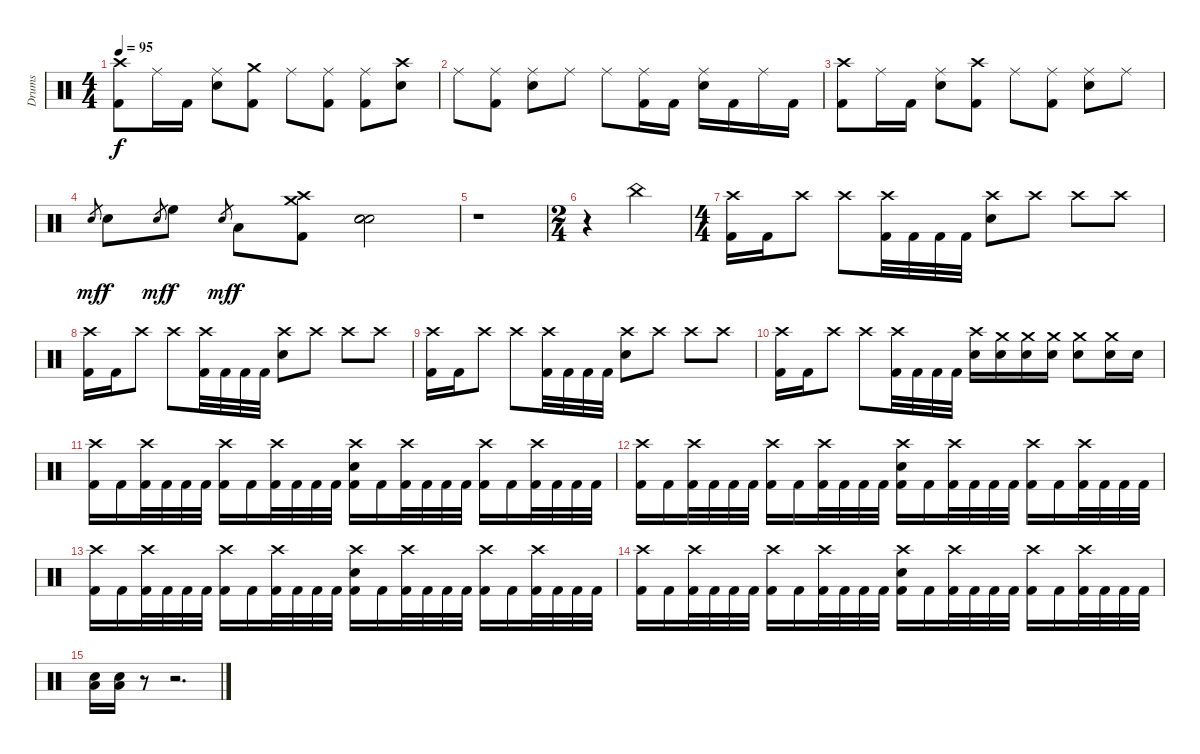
\track ("Drums" "Drums") {instrument percussion}
\staff {score}
\articulation defaults
\ts (4 4)
\tempo 95
\clef neutral
\ks c
("Crash high (hit)" "Kick (hit) 2").8{dy f} "Ride (middle)".16 "Kick (hit) 2".16 ("Ride (middle)" "Snare (hit) 2").8 ("Crash medium (hit)" "Kick (hit) 2").8 "Ride (middle)".8 ("Ride (middle)" "Kick (hit) 2").8 ("Ride (middle)" "Kick (hit) 2").8 ("Crash high (hit)" "Snare (hit) 2").8 |
"Ride (middle)".8 ("Ride (middle)" "Kick (hit) 2").8 ("Ride (middle)" "Snare (hit) 2").8 "Ride (middle)".8 "Ride (middle)".8 ("Ride (middle)" "Kick (hit) 2").16 "Kick (hit) 2".16 ("Ride (middle)" "Snare (hit) 2").16 "Kick (hit) 2".16 "Ride (middle)".16 "Kick (hit) 2".16 |
("Crash high (hit)" "Kick (hit) 2").8 "Ride (middle)".16 "Kick (hit) 2".16 ("Ride (middle)" "Snare (hit) 2").8 ("Crash high (hit)" "Kick (hit) 2").8 "Ride (middle)".8 ("Ride (middle)" "Kick (hit) 2").8 ("Ride (middle)" "Snare (hit) 2").8 "Ride (middle)".8 |
"Snare (hit)".8{gr dy mf} "Snare (hit) 2".8{dy f} "Snare (hit)".8{gr dy mf} "High Floor Tom (hit)".8{dy f} "Snare (hit)".8{gr dy mf} "Low Tom (hit)".8{dy f} ("Crash medium (hit)" "Crash high (hit)" "Kick (hit) 2").8 ("Snare (hit)" "Snare (hit)" "Snare (hit)").2 |
r.1 |
\ts (2 4)
r.4 "China (hit)".4 |
\ts (4 4)
("Crash high (hit)" "Kick (hit) 2").16 "Kick (hit) 2".16 "Crash high (hit)".8 "Crash high (hit)".8 ("Crash high (hit)" "Kick (hit) 2").32 "Kick (hit) 2".32 "Kick (hit) 2".32 "Kick (hit) 2".32 ("Crash high (hit)" "Snare (hit) 2").8 "Crash high (hit)".8 "Crash high (hit)".8 "Crash high (hit)".8 |
("Crash high (hit)" "Kick (hit) 2").16 "Kick (hit) 2".16 "Crash high (hit)".8 "Crash high (hit)".8 ("Crash high (hit)" "Kick (hit) 2").32 "Kick (hit) 2".32 "Kick (hit) 2".32 "Kick (hit) 2".32 ("Crash high (hit)" "Snare (hit) 2").8 "Crash high (hit)".8 "Crash high (hit)".8 "Crash high (hit)".8 |
("Crash high (hit)" "Kick (hit) 2").16 "Kick (hit) 2".16 "Crash high (hit)".8 "Crash high (hit)".8 ("Crash high (hit)" "Kick (hit) 2").32 "Kick (hit) 2".32 "Kick (hit) 2".32 "Kick (hit) 2".32 ("Crash high (hit)" "Snare (hit) 2").8 "Crash high (hit)".8 "Crash high (hit)".8 "Crash high (hit)".8 |
("Crash high (hit)" "Kick (hit) 2").16 "Kick (hit) 2".16 "Crash high (hit)".8 "Crash high (hit)".8 ("Crash high (hit)" "Kick (hit) 2").32 "Kick (hit) 2".32 "Kick (hit) 2".32 "Kick (hit) 2".32 ("Crash high (hit)" "Snare (hit) 2").16 ("Crash medium (hit)" "Snare (hit) 2").16 ("Crash medium (hit)" "Snare (hit) 2").16 ("Crash medium (hit)" "Snare (hit) 2").16 ("Crash medium (hit)" "Snare (hit) 2").8 ("Crash medium (hit)" "Snare (hit) 2").16 "Snare (hit) 2".16 |
("Crash high (hit)" "Kick (hit) 2").16 "Kick (hit) 2".16 ("Crash high (hit)" "Kick (hit) 2").32 "Kick (hit) 2".32 "Kick (hit) 2".32 "Kick (hit) 2".32 ("Crash high (hit)" "Kick (hit) 2").16 "Kick (hit) 2".16 ("Crash high (hit)" "Kick (hit) 2").32 "Kick (hit) 2".32 "Kick (hit) 2".32 "Kick (hit) 2".32 ("Crash high (hit)" "Snare (hit) 2" "Kick (hit) 2").16 "Kick (hit) 2".16 ("Crash high (hit)" "Kick (hit) 2").32 "Kick (hit) 2".32 "Kick (hit) 2".32 "Kick (hit) 2".32 ("Crash high (hit)" "Kick (hit) 2").16 "Kick (hit) 2".16 ("Crash high (hit)" "Kick (hit) 2").32 "Kick (hit) 2".32 "Kick (hit) 2".32 "Kick (hit) 2".32 |
("Crash high (hit)" "Kick (hit) 2").16 "Kick (hit) 2".16 ("Crash high (hit)" "Kick (hit) 2").32 "Kick (hit) 2".32 "Kick (hit) 2".32 "Kick (hit) 2".32 ("Crash high (hit)" "Kick (hit) 2").16 "Kick (hit) 2".16 ("Crash high (hit)" "Kick (hit) 2").32 "Kick (hit) 2".32 "Kick (hit) 2".32 "Kick (hit) 2".32 ("Crash high (hit)" "Snare (hit) 2" "Kick (hit) 2").16 "Kick (hit) 2".16 ("Crash high (hit)" "Kick (hit) 2").32 "Kick (hit) 2".32 "Kick (hit) 2".32 "Kick (hit) 2".32 ("Crash high (hit)" "Kick (hit) 2").16 "Kick (hit) 2".16 ("Crash high (hit)" "Kick (hit) 2").32 "Kick (hit) 2".32 "Kick (hit) 2".32 "Kick (hit) 2".32 |
("Crash high (hit)" "Kick (hit) 2").16 "Kick (hit) 2".16 ("Crash high (hit)" "Kick (hit) 2").32 "Kick (hit) 2".32 "Kick (hit) 2".32 "Kick (hit) 2".32 ("Crash high (hit)" "Kick (hit) 2").16 "Kick (hit) 2".16 ("Crash high (hit)" "Kick (hit) 2").32 "Kick (hit) 2".32 "Kick (hit) 2".32 "Kick (hit) 2".32 ("Crash high (hit)" "Snare (hit) 2" "Kick (hit) 2").16 "Kick (hit) 2".16 ("Crash high (hit)" "Kick (hit) 2").32 "Kick (hit) 2".32 "Kick (hit) 2".32 "Kick (hit) 2".32 ("Crash high (hit)" "Kick (hit) 2").16 "Kick (hit) 2".16 ("Crash high (hit)" "Kick (hit) 2").32 "Kick (hit) 2".32 "Kick (hit) 2".32 "Kick (hit) 2".32 |
("Crash high (hit)" "Kick (hit) 2").16 "Kick (hit) 2".16 ("Crash high (hit)" "Kick (hit) 2").32 "Kick (hit) 2".32 "Kick (hit) 2".32 "Kick (hit) 2".32 ("Crash high (hit)" "Kick (hit) 2").16 "Kick (hit) 2".16 ("Crash high (hit)" "Kick (hit) 2").32 "Kick (hit) 2".32 "Kick (hit) 2".32 "Kick (hit) 2".32 ("Crash high (hit)" "Snare (hit) 2" "Kick (hit) 2").16 "Kick (hit) 2".16 ("Crash high (hit)" "Kick (hit) 2").32 "Kick (hit) 2".32 "Kick (hit) 2".32 "Kick (hit) 2".32 ("Crash high (hit)" "Kick (hit) 2").16 "Kick (hit) 2".16 ("Crash high (hit)" "Kick (hit) 2").32 "Kick (hit) 2".32 "Kick (hit) 2".32 "Kick (hit) 2".32 |
("Low Floor Tom (hit)" "Snare (hit) 2").16 ("Low Floor Tom (hit)" "Snare (hit) 2").16 r.8 r.2{d}
